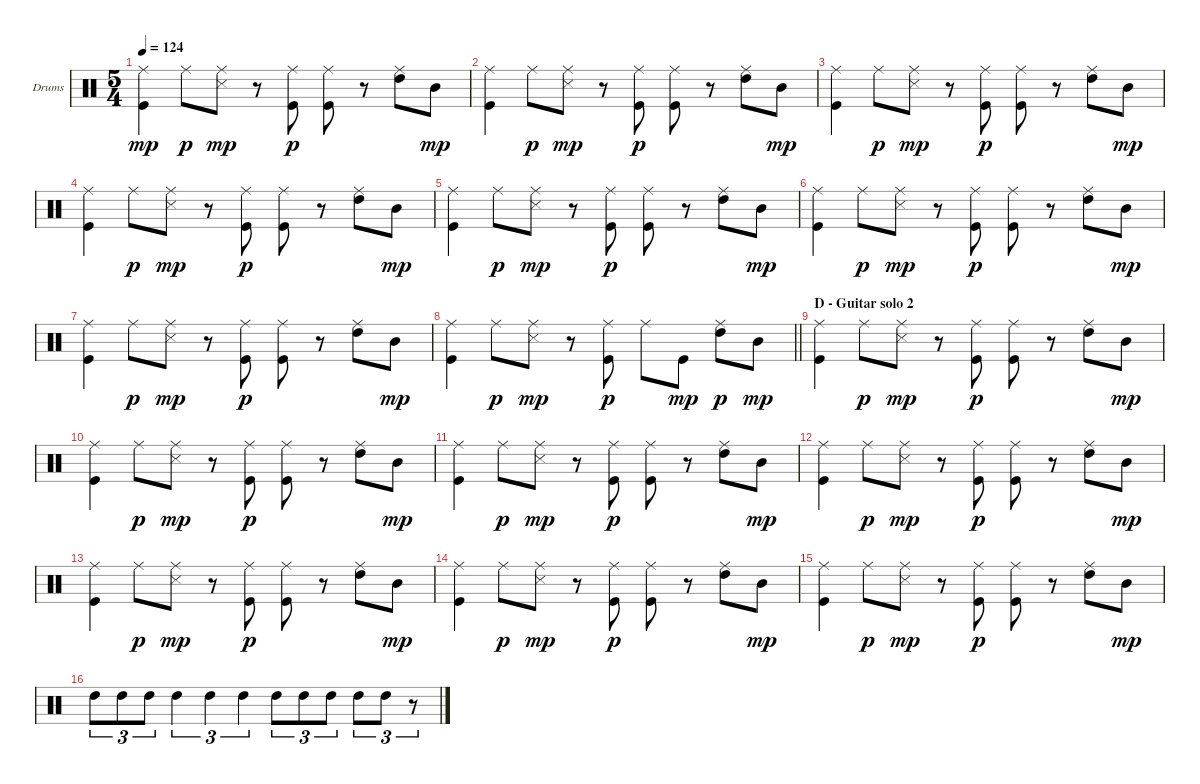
\bracketExtendMode groupsimilarinstruments
\firstSystemTrackNameOrientation horizontal
\otherSystemsTrackNameOrientation horizontal
\track ("Drumkit" "Drums") {instrument percussion}
\staff {score}
\articulation defaults
\ts (5 4)
\tempo 124
\clef neutral
\ks aminor
("Ride (middle)" "Kick (hit)").4{dy mp} "Ride (middle)".8{dy p} ("Ride (middle)" "Snare (side stick) 3").8{dy mp} r.8 ("Ride (middle)" "Kick (hit)").8{dy p} ("Ride (middle)" "Kick (hit)").8 r.8 ("Ride (middle)" "High Tom (hit)").8 "Mid Tom (hit)".8{dy mp} |
("Ride (middle)" "Kick (hit)").4 "Ride (middle)".8{dy p} ("Ride (middle)" "Snare (side stick) 3").8{dy mp} r.8 ("Ride (middle)" "Kick (hit)").8{dy p} ("Ride (middle)" "Kick (hit)").8 r.8 ("Ride (middle)" "High Tom (hit)").8 "Mid Tom (hit)".8{dy mp} |
("Ride (middle)" "Kick (hit)").4 "Ride (middle)".8{dy p} ("Ride (middle)" "Snare (side stick) 3").8{dy mp} r.8 ("Ride (middle)" "Kick (hit)").8{dy p} ("Ride (middle)" "Kick (hit)").8 r.8 ("Ride (middle)" "High Tom (hit)").8 "Mid Tom (hit)".8{dy mp} |
("Ride (middle)" "Kick (hit)").4 "Ride (middle)".8{dy p} ("Ride (middle)" "Snare (side stick) 3").8{dy mp} r.8 ("Ride (middle)" "Kick (hit)").8{dy p} ("Ride (middle)" "Kick (hit)").8 r.8 ("Ride (middle)" "High Tom (hit)").8 "Mid Tom (hit)".8{dy mp} |
("Ride (middle)" "Kick (hit)").4 "Ride (middle)".8{dy p} ("Ride (middle)" "Snare (side stick) 3").8{dy mp} r.8 ("Ride (middle)" "Kick (hit)").8{dy p} ("Ride (middle)" "Kick (hit)").8 r.8 ("Ride (middle)" "High Tom (hit)").8 "Mid Tom (hit)".8{dy mp} |
("Ride (middle)" "Kick (hit)").4 "Ride (middle)".8{dy p} ("Ride (middle)" "Snare (side stick) 3").8{dy mp} r.8 ("Ride (middle)" "Kick (hit)").8{dy p} ("Ride (middle)" "Kick (hit)").8 r.8 ("Ride (middle)" "High Tom (hit)").8 "Mid Tom (hit)".8{dy mp} |
("Ride (middle)" "Kick (hit)").4 "Ride (middle)".8{dy p} ("Ride (middle)" "Snare (side stick) 3").8{dy mp} r.8 ("Ride (middle)" "Kick (hit)").8{dy p} ("Ride (middle)" "Kick (hit)").8 r.8 ("Ride (middle)" "High Tom (hit)").8 "Mid Tom (hit)".8{dy mp} |
\barLineRight lightlight
("Ride (middle)" "Kick (hit)").4 "Ride (middle)".8{dy p} ("Ride (middle)" "Snare (side stick) 3").8{dy mp} r.8 ("Ride (middle)" "Kick (hit)").8{dy p} "Ride (middle)".8 "Kick (hit)".8{dy mp} ("Ride (middle)" "High Tom (hit)").8{dy p} "Mid Tom (hit)".8{dy mp} |
\section ("" "D - Guitar solo 2")
("Ride (middle)" "Kick (hit)").4 "Ride (middle)".8{dy p} ("Ride (middle)" "Snare (side stick) 3").8{dy mp} r.8 ("Ride (middle)" "Kick (hit)").8{dy p} ("Ride (middle)" "Kick (hit)").8 r.8 ("Ride (middle)" "High Tom (hit)").8 "Mid Tom (hit)".8{dy mp} |
("Ride (middle)" "Kick (hit)").4 "Ride (middle)".8{dy p} ("Ride (middle)" "Snare (side stick) 3").8{dy mp} r.8 ("Ride (middle)" "Kick (hit)").8{dy p} ("Ride (middle)" "Kick (hit)").8 r.8 ("Ride (middle)" "High Tom (hit)").8 "Mid Tom (hit)".8{dy mp} |
("Ride (middle)" "Kick (hit)").4 "Ride (middle)".8{dy p} ("Ride (middle)" "Snare (side stick) 3").8{dy mp} r.8 ("Ride (middle)" "Kick (hit)").8{dy p} ("Ride (middle)" "Kick (hit)").8 r.8 ("Ride (middle)" "High Tom (hit)").8 "Mid Tom (hit)".8{dy mp} |
("Ride (middle)" "Kick (hit)").4 "Ride (middle)".8{dy p} ("Ride (middle)" "Snare (side stick) 3").8{dy mp} r.8 ("Ride (middle)" "Kick (hit)").8{dy p} ("Ride (middle)" "Kick (hit)").8 r.8 ("Ride (middle)" "High Tom (hit)").8 "Mid Tom (hit)".8{dy mp} |
("Ride (middle)" "Kick (hit)").4 "Ride (middle)".8{dy p} ("Ride (middle)" "Snare (side stick) 3").8{dy mp} r.8 ("Ride (middle)" "Kick (hit)").8{dy p} ("Ride (middle)" "Kick (hit)").8 r.8 ("Ride (middle)" "High Tom (hit)").8 "Mid Tom (hit)".8{dy mp} |
("Ride (middle)" "Kick (hit)").4 "Ride (middle)".8{dy p} ("Ride (middle)" "Snare (side stick) 3").8{dy mp} r.8 ("Ride (middle)" "Kick (hit)").8{dy p} ("Ride (middle)" "Kick (hit)").8 r.8 ("Ride (middle)" "High Tom (hit)").8 "Mid Tom (hit)".8{dy mp} |
("Ride (middle)" "Kick (hit)").4 "Ride (middle)".8{dy p} ("Ride (middle)" "Snare (side stick) 3").8{dy mp} r.8 ("Ride (middle)" "Kick (hit)").8{dy p} ("Ride (middle)" "Kick (hit)").8 r.8 ("Ride (middle)" "High Tom (hit)").8 "Mid Tom (hit)".8{dy mp} |
"High Tom (hit)".8{tu (3 2)} "High Tom (hit)".8{tu (3 2)} "High Tom (hit)".8{tu (3 2)} "High Tom (hit)".4{tu (3 2)} "High Tom (hit)".4{tu (3 2)} "High Tom (hit)".4{tu (3 2)} "High Tom (hit)".8{tu (3 2)} "High Tom (hit)".8{tu (3 2)} "High Tom (hit)".8{tu (3 2)} "High Tom (hit)".8{tu (3 2)} "High Tom (hit)".8{tu (3 2)} r.8{tu (3 2)}
